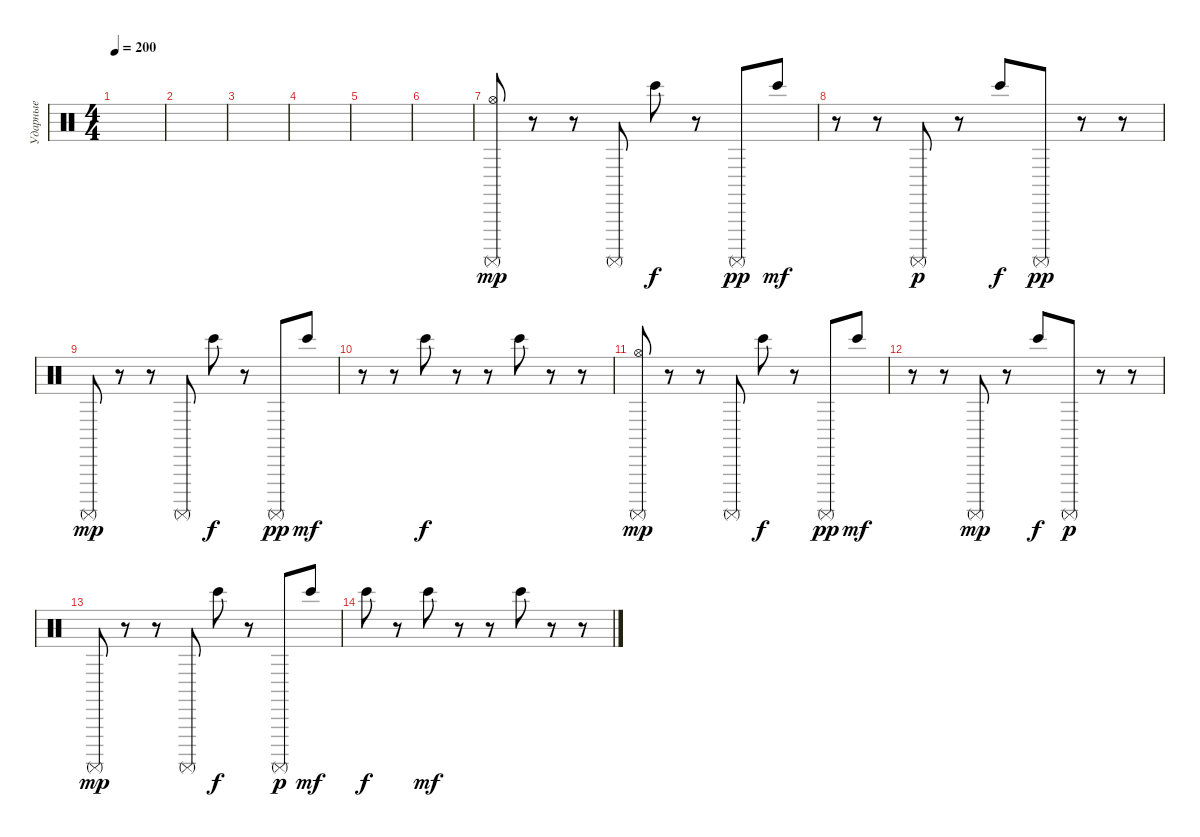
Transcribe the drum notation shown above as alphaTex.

\track ("Ударные" "Ударные") {instrument percussion}
\staff {score}
\articulation defaults
\ts (4 4)
\tempo 200
\clef neutral
\ks c
|
|
|
|
|
|
("Hi-Hat (open)" "Surdo (mute)").8{dy mp} r.8 r.8 "Surdo (mute)".8 "Bongo High (hit)".8{dy f} r.8 "Surdo (mute)".8{dy pp} "Bongo High (hit)".8{dy mf} |
r.8 r.8 "Surdo (mute)".8{dy p} r.8 "Bongo High (hit)".8{dy f} "Surdo (mute)".8{dy pp} r.8 r.8 |
"Surdo (mute)".8{dy mp} r.8 r.8 "Surdo (mute)".8 "Bongo High (hit)".8{dy f} r.8 "Surdo (mute)".8{dy pp} "Bongo High (hit)".8{dy mf} |
r.8 r.8 "Bongo High (hit)".8{dy f} r.8 r.8 "Bongo High (hit)".8 r.8 r.8 |
("Hi-Hat (open)" "Surdo (mute)").8{dy mp} r.8 r.8 "Surdo (mute)".8 "Bongo High (hit)".8{dy f} r.8 "Surdo (mute)".8{dy pp} "Bongo High (hit)".8{dy mf} |
r.8 r.8 "Surdo (mute)".8{dy mp} r.8 "Bongo High (hit)".8{dy f} "Surdo (mute)".8{dy p} r.8 r.8 |
"Surdo (mute)".8{dy mp} r.8 r.8 "Surdo (mute)".8 "Bongo High (hit)".8{dy f} r.8 "Surdo (mute)".8{dy p} "Bongo High (hit)".8{dy mf} |
"Bongo High (hit)".8{dy f} r.8 "Bongo High (hit)".8{dy mf} r.8 r.8 "Bongo High (hit)".8 r.8 r.8
